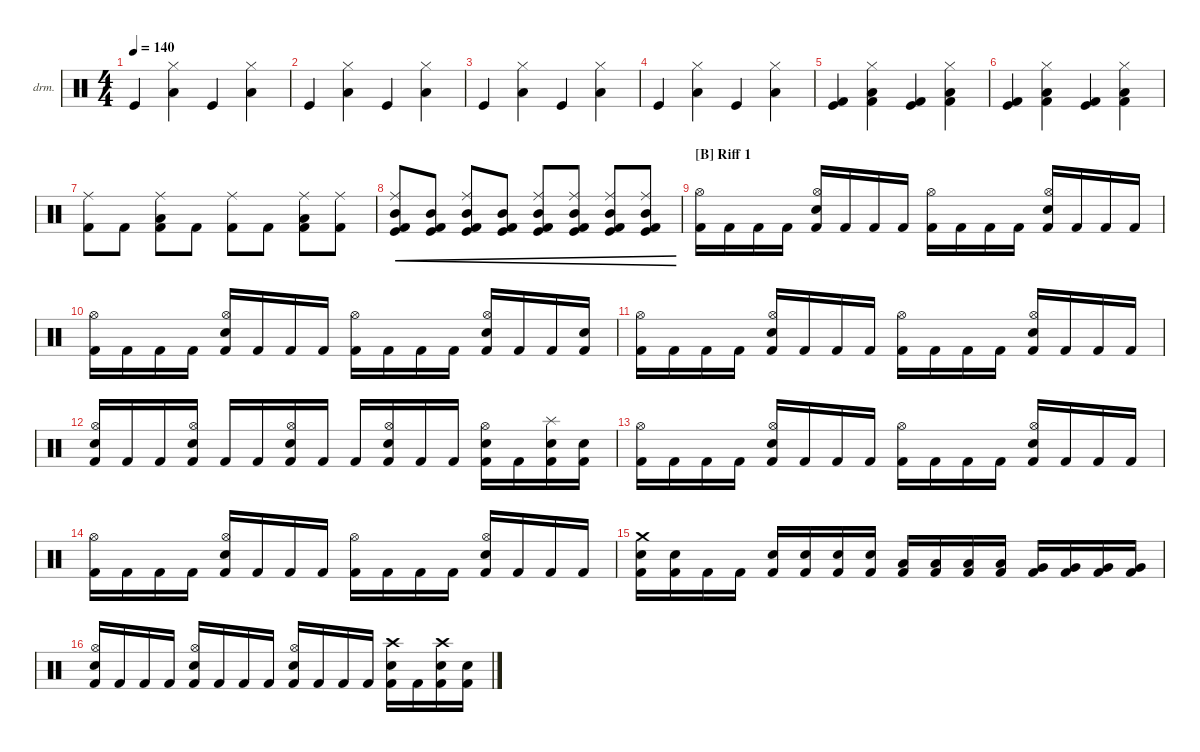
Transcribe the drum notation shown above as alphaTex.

\defaultSystemsLayout 4
\hideDynamics
\bracketExtendMode nobrackets
\firstSystemTrackNameOrientation horizontal
\otherSystemsTrackNameOrientation horizontal
\track ("Drumkit" "drm.") {instrument percussion}
\staff {score}
\articulation defaults
\ts (4 4)
\tempo 140
\clef neutral
\ks c "Kick (hit)".4{dy mf}
("Hi-Hat (closed)" "Low Tom (hit)").4 "Kick (hit)".4 ("Hi-Hat (closed)" "Low Tom (hit)").4 |
"Kick (hit)".4 ("Hi-Hat (closed)" "Low Tom (hit)").4 "Kick (hit)".4 ("Hi-Hat (closed)" "Low Tom (hit)").4 |
"Kick (hit)".4 ("Hi-Hat (closed)" "Low Tom (hit)").4 "Kick (hit)".4 ("Hi-Hat (closed)" "Low Tom (hit)").4 |
"Kick (hit)".4 ("Hi-Hat (closed)" "Low Tom (hit)").4 "Kick (hit)".4 ("Hi-Hat (closed)" "Low Tom (hit)").4 |
("Kick (hit)" "Kick (hit) 2").4 ("Hi-Hat (closed)" "Low Tom (hit)" "Kick (hit) 2").4 ("Kick (hit)" "Kick (hit) 2").4 ("Hi-Hat (closed)" "Low Tom (hit)" "Kick (hit) 2").4 |
("Kick (hit)" "Kick (hit) 2").4 ("Hi-Hat (closed)" "Low Tom (hit)" "Kick (hit) 2").4 ("Kick (hit)" "Kick (hit) 2").4 ("Hi-Hat (closed)" "Low Tom (hit)" "Kick (hit) 2").4 |
("Ride (middle)" "Kick (hit) 2").8 "Kick (hit) 2".8 ("Low Tom (hit)" "Ride (middle)" "Kick (hit) 2").8 "Kick (hit) 2".8 ("Ride (middle)" "Kick (hit) 2").8 "Kick (hit) 2".8 ("Low Tom (hit)" "Ride (middle)" "Kick (hit) 2").8 ("Ride (middle)" "Kick (hit) 2").8 |
("Mid Tom (hit)" "Kick (hit) 2" "Kick (hit)" "Ride (middle)").8{cre} ("Mid Tom (hit)" "Kick (hit)" "Kick (hit) 2").8{cre} ("Mid Tom (hit)" "Kick (hit)" "Kick (hit) 2" "Ride (middle)").8{cre} ("Mid Tom (hit)" "Kick (hit)" "Kick (hit) 2").8{cre} ("Mid Tom (hit)" "Kick (hit)" "Kick (hit) 2" "Ride (middle)").8{cre} ("Mid Tom (hit)" "Kick (hit)" "Kick (hit) 2" "Ride (middle)").8{cre} ("Mid Tom (hit)" "Kick (hit)" "Kick (hit) 2" "Ride (middle)").8{cre} ("Mid Tom (hit)" "Kick (hit)" "Kick (hit) 2" "Ride (middle)").8{cre} |
\section ("B" "Riff 1")
("Hi-Hat (open)" "Kick (hit) 2").16{dy ff} "Kick (hit) 2".16 "Kick (hit) 2".16 "Kick (hit) 2".16 ("Hi-Hat (open)" "Snare (hit) 2" "Kick (hit) 2").16 "Kick (hit) 2".16 "Kick (hit) 2".16 "Kick (hit) 2".16 ("Hi-Hat (open)" "Kick (hit) 2").16 "Kick (hit) 2".16 "Kick (hit) 2".16 "Kick (hit) 2".16 ("Hi-Hat (open)" "Snare (hit) 2" "Kick (hit) 2").16 "Kick (hit) 2".16 "Kick (hit) 2".16 "Kick (hit) 2".16 |
("Hi-Hat (open)" "Kick (hit) 2").16 "Kick (hit) 2".16 "Kick (hit) 2".16 "Kick (hit) 2".16 ("Hi-Hat (open)" "Snare (hit) 2" "Kick (hit) 2").16 "Kick (hit) 2".16 "Kick (hit) 2".16 "Kick (hit) 2".16 ("Hi-Hat (open)" "Kick (hit) 2").16 "Kick (hit) 2".16 "Kick (hit) 2".16 "Kick (hit) 2".16 ("Hi-Hat (open)" "Snare (hit) 2" "Kick (hit) 2").16 "Kick (hit) 2".16 "Kick (hit) 2".16 ("Snare (hit) 2" "Kick (hit) 2").16 |
("Hi-Hat (open)" "Kick (hit) 2").16 "Kick (hit) 2".16 "Kick (hit) 2".16 "Kick (hit) 2".16 ("Hi-Hat (open)" "Snare (hit) 2" "Kick (hit) 2").16 "Kick (hit) 2".16 "Kick (hit) 2".16 "Kick (hit) 2".16 ("Hi-Hat (open)" "Kick (hit) 2").16 "Kick (hit) 2".16 "Kick (hit) 2".16 "Kick (hit) 2".16 ("Hi-Hat (open)" "Snare (hit) 2" "Kick (hit) 2").16 "Kick (hit) 2".16 "Kick (hit) 2".16 "Kick (hit) 2".16 |
("Hi-Hat (open)" "Snare (hit) 2" "Kick (hit) 2").16 "Kick (hit) 2".16 "Kick (hit) 2".16 ("Hi-Hat (open)" "Snare (hit) 2" "Kick (hit) 2").16 "Kick (hit) 2".16 "Kick (hit) 2".16 ("Hi-Hat (open)" "Snare (hit) 2" "Kick (hit) 2").16 "Kick (hit) 2".16 "Kick (hit) 2".16 ("Hi-Hat (open)" "Snare (hit) 2" "Kick (hit) 2").16 "Kick (hit) 2".16 "Kick (hit) 2".16 ("Hi-Hat (open)" "Snare (hit) 2" "Kick (hit) 2").16 "Kick (hit) 2".16 ("Splash (hit)" "Snare (hit) 2" "Kick (hit) 2").16 ("Snare (hit) 2" "Kick (hit) 2").16 |
("Hi-Hat (open)" "Kick (hit) 2").16 "Kick (hit) 2".16 "Kick (hit) 2".16 "Kick (hit) 2".16 ("Hi-Hat (open)" "Snare (hit) 2" "Kick (hit) 2").16 "Kick (hit) 2".16 "Kick (hit) 2".16 "Kick (hit) 2".16 ("Hi-Hat (open)" "Kick (hit) 2").16 "Kick (hit) 2".16 "Kick (hit) 2".16 "Kick (hit) 2".16 ("Hi-Hat (open)" "Snare (hit) 2" "Kick (hit) 2").16 "Kick (hit) 2".16 "Kick (hit) 2".16 "Kick (hit) 2".16 |
("Hi-Hat (open)" "Kick (hit) 2").16 "Kick (hit) 2".16 "Kick (hit) 2".16 "Kick (hit) 2".16 ("Hi-Hat (open)" "Snare (hit) 2" "Kick (hit) 2").16 "Kick (hit) 2".16 "Kick (hit) 2".16 "Kick (hit) 2".16 ("Hi-Hat (open)" "Kick (hit) 2").16 "Kick (hit) 2".16 "Kick (hit) 2".16 "Kick (hit) 2".16 ("Hi-Hat (open)" "Snare (hit) 2" "Kick (hit) 2").16 "Kick (hit) 2".16 "Kick (hit) 2".16 "Kick (hit) 2".16 |
("Crash medium (hit)" "Snare (hit) 2" "Kick (hit) 2").16{dy mf} ("Snare (hit) 2" "Kick (hit) 2").16 "Kick (hit) 2".16 "Kick (hit) 2".16 ("Snare (hit) 2" "Kick (hit) 2").16 ("Snare (hit) 2" "Kick (hit) 2").16 ("Snare (hit) 2" "Kick (hit) 2").16 ("Snare (hit) 2" "Kick (hit) 2").16 ("Low Tom (hit)" "Kick (hit) 2").16 ("Low Tom (hit)" "Kick (hit) 2").16 ("Low Tom (hit)" "Kick (hit) 2").16 ("Low Tom (hit)" "Kick (hit) 2").16 ("Very Low Tom (hit)" "Kick (hit) 2").16 ("Very Low Tom (hit)" "Kick (hit) 2").16 ("Very Low Tom (hit)" "Kick (hit) 2").16 ("Very Low Tom (hit)" "Kick (hit) 2").16 |
("Hi-Hat (open)" "Snare (hit) 2" "Kick (hit) 2").16 "Kick (hit) 2".16 "Kick (hit) 2".16 "Kick (hit) 2".16 ("Hi-Hat (open)" "Snare (hit) 2" "Kick (hit) 2").16 "Kick (hit) 2".16 "Kick (hit) 2".16 "Kick (hit) 2".16 ("Hi-Hat (open)" "Snare (hit) 2" "Kick (hit) 2").16 "Kick (hit) 2".16 "Kick (hit) 2".16 "Kick (hit) 2".16 ("Crash high (hit)" "Snare (hit) 2" "Kick (hit) 2").16 "Kick (hit) 2".16 ("Crash high (hit)" "Snare (hit) 2" "Kick (hit) 2").16 ("Snare (hit) 2" "Kick (hit) 2").16
